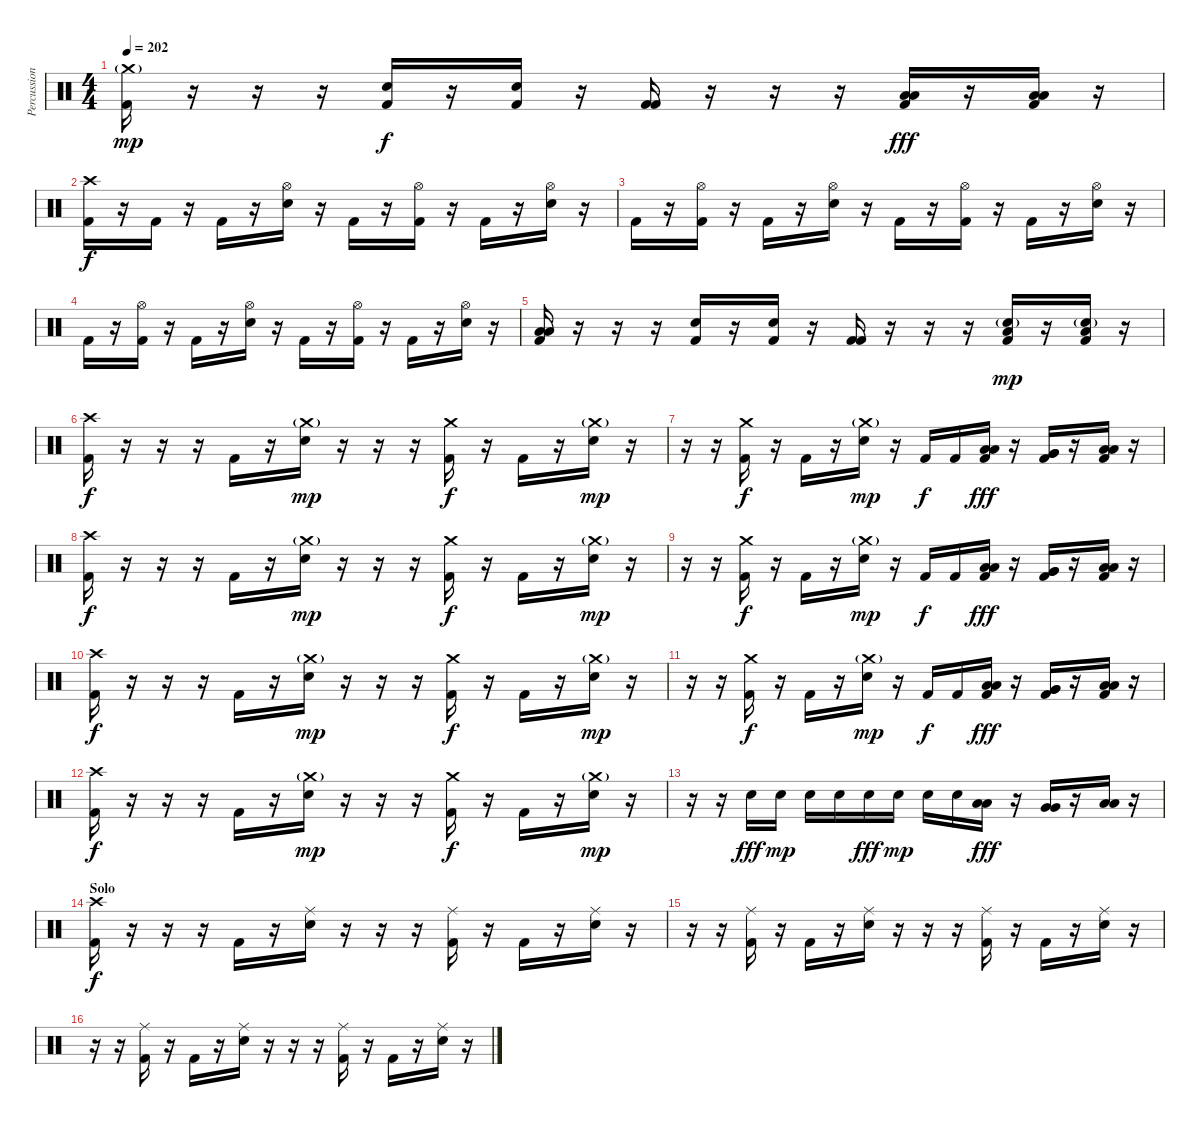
\track ("Percussion" "Percussion") {instrument percussion}
\staff {score}
\articulation defaults
\ts (4 4)
\tempo 202
\clef neutral
\ks c
("Crash medium (hit)"{g} "Kick (hit) 2").16{dy mp} r.16 r.16 r.16 ("Electric Snare (hit)" "Kick (hit) 2").16{dy f} r.16 ("Electric Snare (hit)" "Kick (hit) 2").16 r.16 ("Kick (hit) 2" "Kick (hit) 2").16 r.16 r.16 r.16 ("Low Tom (hit)" "Low Tom (hit)" "Kick (hit) 2").16{dy fff} r.16 ("Low Tom (hit)" "Low Tom (hit)" "Kick (hit) 2").16 r.16 |
("Crash high (hit)" "Kick (hit) 2").16{dy f} r.16 "Kick (hit) 2".16 r.16 "Kick (hit) 2".16 r.16 ("Hi-Hat (open)" "Electric Snare (hit)").16 r.16 "Kick (hit) 2".16 r.16 ("Hi-Hat (open)" "Kick (hit) 2").16 r.16 "Kick (hit) 2".16 r.16 ("Hi-Hat (open)" "Electric Snare (hit)").16 r.16 |
"Kick (hit) 2".16 r.16 ("Hi-Hat (open)" "Kick (hit) 2").16 r.16 "Kick (hit) 2".16 r.16 ("Hi-Hat (open)" "Electric Snare (hit)").16 r.16 "Kick (hit) 2".16 r.16 ("Hi-Hat (open)" "Kick (hit) 2").16 r.16 "Kick (hit) 2".16 r.16 ("Hi-Hat (open)" "Electric Snare (hit)").16 r.16 |
"Kick (hit) 2".16 r.16 ("Hi-Hat (open)" "Kick (hit) 2").16 r.16 "Kick (hit) 2".16 r.16 ("Hi-Hat (open)" "Electric Snare (hit)").16 r.16 "Kick (hit) 2".16 r.16 ("Hi-Hat (open)" "Kick (hit) 2").16 r.16 "Kick (hit) 2".16 r.16 ("Hi-Hat (open)" "Electric Snare (hit)").16 r.16 |
("Low Tom (hit)" "Low Tom (hit)" "Kick (hit) 2").16 r.16 r.16 r.16 ("Electric Snare (hit)" "Kick (hit) 2").16 r.16 ("Electric Snare (hit)" "Kick (hit) 2").16 r.16 ("Kick (hit) 2" "Kick (hit) 2").16 r.16 r.16 r.16 ("Low Tom (hit)" "Electric Snare (hit)"{g} "Kick (hit) 2").16{dy mp} r.16 ("Low Tom (hit)" "Electric Snare (hit)"{g} "Kick (hit) 2").16 r.16 |
("Crash high (hit)" "Kick (hit) 2").16{dy f} r.16 r.16 r.16 "Kick (hit) 2".16 r.16 ("Crash medium (hit)"{g} "Electric Snare (hit)").16{dy mp} r.16 r.16 r.16 ("Crash medium (hit)" "Kick (hit) 2").16{dy f} r.16 "Kick (hit) 2".16 r.16 ("Crash medium (hit)"{g} "Electric Snare (hit)").16{dy mp} r.16 |
r.16 r.16 ("Crash medium (hit)" "Kick (hit) 2").16{dy f} r.16 "Kick (hit) 2".16 r.16 ("Crash medium (hit)"{g} "Electric Snare (hit)").16{dy mp} r.16 "Kick (hit) 2".16{dy f} "Kick (hit) 2".16 ("Low Tom (hit)" "Low Tom (hit)" "Kick (hit) 2").16{dy fff} r.16 ("Very Low Tom (hit)" "Very Low Tom (hit)" "Kick (hit) 2").16 r.16 ("Low Floor Tom (hit)" "Low Floor Tom (hit)" "Kick (hit) 2").16 r.16 |
("Crash high (hit)" "Kick (hit) 2").16{dy f} r.16 r.16 r.16 "Kick (hit) 2".16 r.16 ("Crash medium (hit)"{g} "Electric Snare (hit)").16{dy mp} r.16 r.16 r.16 ("Crash medium (hit)" "Kick (hit) 2").16{dy f} r.16 "Kick (hit) 2".16 r.16 ("Crash medium (hit)"{g} "Electric Snare (hit)").16{dy mp} r.16 |
r.16 r.16 ("Crash medium (hit)" "Kick (hit) 2").16{dy f} r.16 "Kick (hit) 2".16 r.16 ("Crash medium (hit)"{g} "Electric Snare (hit)").16{dy mp} r.16 "Kick (hit) 2".16{dy f} "Kick (hit) 2".16 ("Low Tom (hit)" "Low Tom (hit)" "Kick (hit) 2").16{dy fff} r.16 ("Very Low Tom (hit)" "Very Low Tom (hit)" "Kick (hit) 2").16 r.16 ("Low Floor Tom (hit)" "Low Floor Tom (hit)" "Kick (hit) 2").16 r.16 |
("Crash high (hit)" "Kick (hit) 2").16{dy f} r.16 r.16 r.16 "Kick (hit) 2".16 r.16 ("Crash medium (hit)"{g} "Electric Snare (hit)").16{dy mp} r.16 r.16 r.16 ("Crash medium (hit)" "Kick (hit) 2").16{dy f} r.16 "Kick (hit) 2".16 r.16 ("Crash medium (hit)"{g} "Electric Snare (hit)").16{dy mp} r.16 |
r.16 r.16 ("Crash medium (hit)" "Kick (hit) 2").16{dy f} r.16 "Kick (hit) 2".16 r.16 ("Crash medium (hit)"{g} "Electric Snare (hit)").16{dy mp} r.16 "Kick (hit) 2".16{dy f} "Kick (hit) 2".16 ("Low Tom (hit)" "Low Tom (hit)" "Kick (hit) 2").16{dy fff} r.16 ("Very Low Tom (hit)" "Very Low Tom (hit)" "Kick (hit) 2").16 r.16 ("Low Floor Tom (hit)" "Low Floor Tom (hit)" "Kick (hit) 2").16 r.16 |
("Crash high (hit)" "Kick (hit) 2").16{dy f} r.16 r.16 r.16 "Kick (hit) 2".16 r.16 ("Crash medium (hit)"{g} "Electric Snare (hit)").16{dy mp} r.16 r.16 r.16 ("Crash medium (hit)" "Kick (hit) 2").16{dy f} r.16 "Kick (hit) 2".16 r.16 ("Crash medium (hit)"{g} "Electric Snare (hit)").16{dy mp} r.16 |
r.16 r.16 "Electric Snare (hit)".16{dy fff} "Electric Snare (hit)".16{dy mp} "Electric Snare (hit)".16 "Electric Snare (hit)".16 "Electric Snare (hit)".16{dy fff} "Electric Snare (hit)".16{dy mp} "Electric Snare (hit)".16 "Electric Snare (hit)".16 ("Low Tom (hit)" "Low Tom (hit)").16{dy fff} r.16 ("Very Low Tom (hit)" "Very Low Tom (hit)").16 r.16 ("Low Floor Tom (hit)" "Low Floor Tom (hit)").16 r.16 |
\section ("" "Solo")
("Crash high (hit)" "Kick (hit) 2").16{dy f} r.16 r.16 r.16 "Kick (hit) 2".16 r.16 ("Ride (middle)" "Electric Snare (hit)").16 r.16 r.16 r.16 ("Ride (middle)" "Kick (hit) 2").16 r.16 "Kick (hit) 2".16 r.16 ("Ride (middle)" "Electric Snare (hit)").16 r.16 |
r.16 r.16 ("Ride (middle)" "Kick (hit) 2").16 r.16 "Kick (hit) 2".16 r.16 ("Ride (middle)" "Electric Snare (hit)").16 r.16 r.16 r.16 ("Ride (middle)" "Kick (hit) 2").16 r.16 "Kick (hit) 2".16 r.16 ("Ride (middle)" "Electric Snare (hit)").16 r.16 |
r.16 r.16 ("Ride (middle)" "Kick (hit) 2").16 r.16 "Kick (hit) 2".16 r.16 ("Ride (middle)" "Electric Snare (hit)").16 r.16 r.16 r.16 ("Ride (middle)" "Kick (hit) 2").16 r.16 "Kick (hit) 2".16 r.16 ("Ride (middle)" "Electric Snare (hit)").16 r.16
